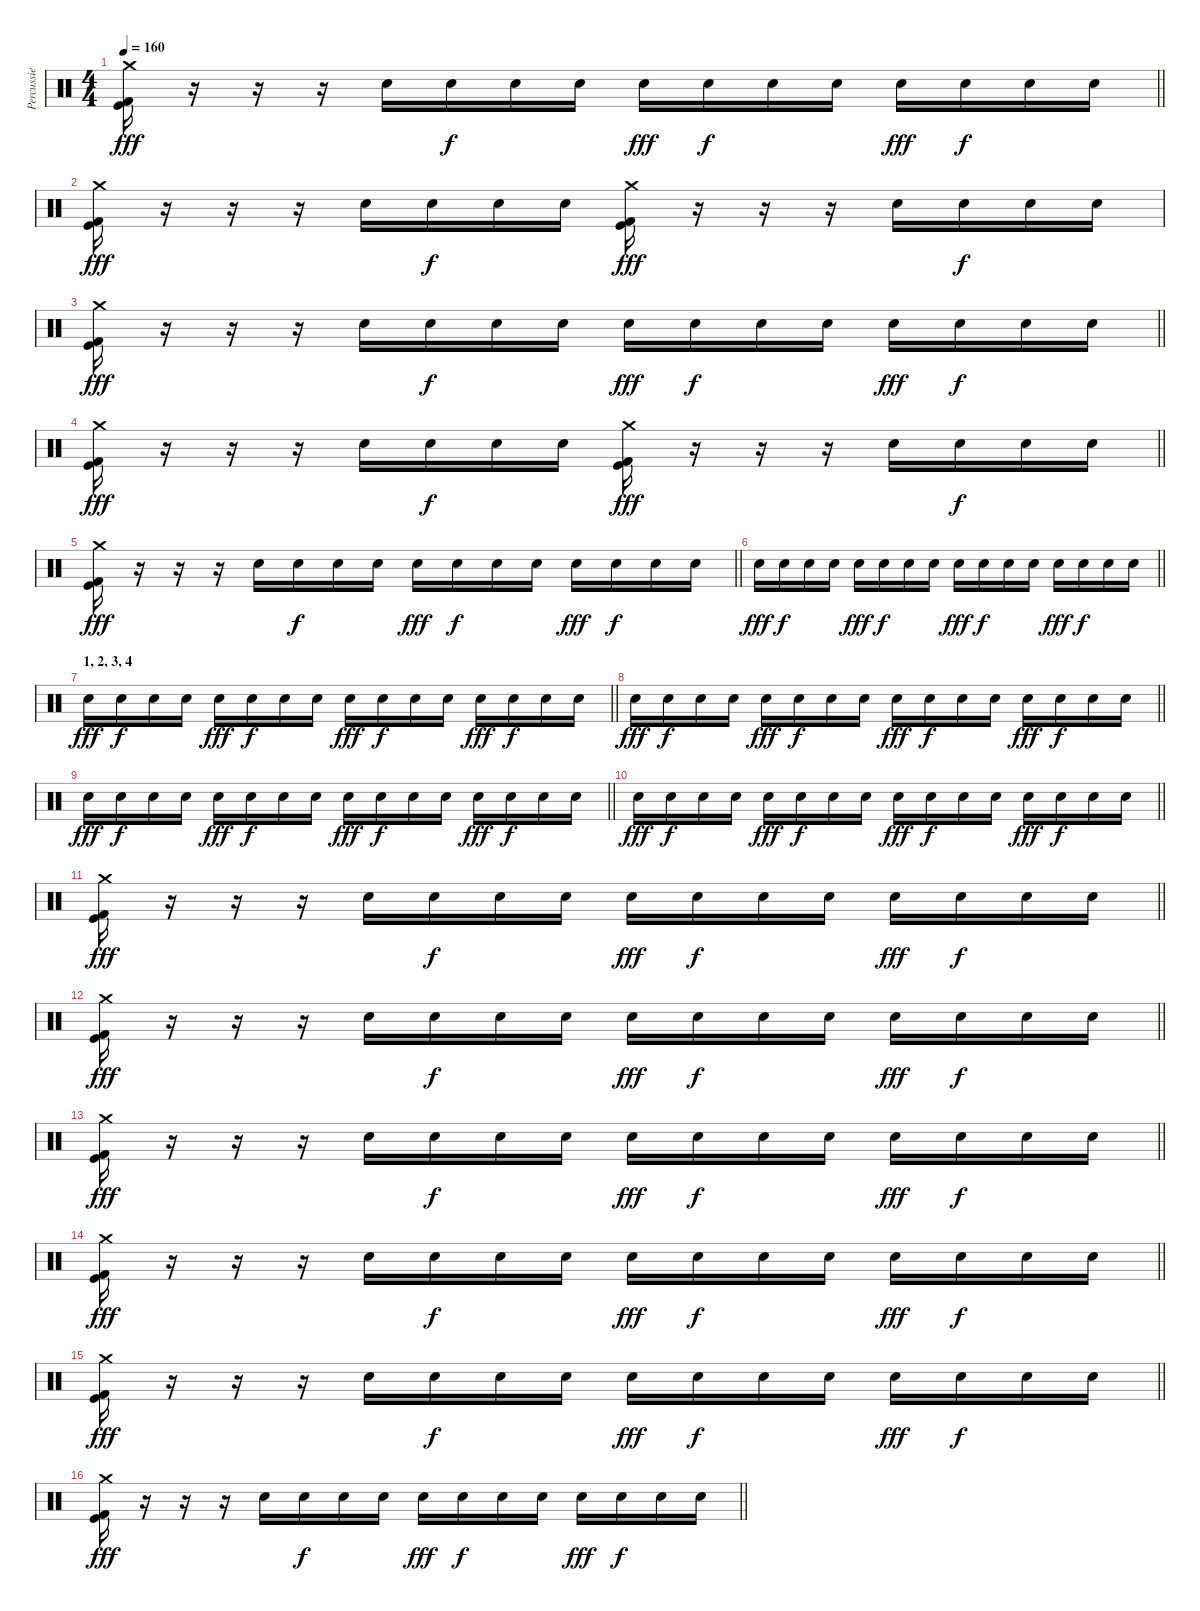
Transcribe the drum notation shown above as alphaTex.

\track ("Percussie" "Percussie") {instrument percussion}
\staff {score}
\articulation defaults
\ts (4 4)
\tempo 160
\clef neutral
\barLineRight lightlight
\ks c
("Crash medium (hit)" "Kick (hit)" "Kick (hit) 2").16{dy fff} r.16 r.16 r.16 "Snare (hit) 2".16 "Snare (hit) 2".16{dy f} "Snare (hit) 2".16 "Snare (hit) 2".16 "Snare (hit) 2".16{dy fff} "Snare (hit) 2".16{dy f} "Snare (hit) 2".16 "Snare (hit) 2".16 "Snare (hit) 2".16{dy fff} "Snare (hit) 2".16{dy f} "Snare (hit) 2".16 "Snare (hit) 2".16 |
("Crash medium (hit)" "Kick (hit)" "Kick (hit) 2").16{dy fff} r.16 r.16 r.16 "Snare (hit) 2".16 "Snare (hit) 2".16{dy f} "Snare (hit) 2".16 "Snare (hit) 2".16 ("Crash medium (hit)" "Kick (hit)" "Kick (hit) 2").16{dy fff} r.16 r.16 r.16 "Snare (hit) 2".16 "Snare (hit) 2".16{dy f} "Snare (hit) 2".16 "Snare (hit) 2".16 |
\barLineRight lightlight
("Crash medium (hit)" "Kick (hit)" "Kick (hit) 2").16{dy fff} r.16 r.16 r.16 "Snare (hit) 2".16 "Snare (hit) 2".16{dy f} "Snare (hit) 2".16 "Snare (hit) 2".16 "Snare (hit) 2".16{dy fff} "Snare (hit) 2".16{dy f} "Snare (hit) 2".16 "Snare (hit) 2".16 "Snare (hit) 2".16{dy fff} "Snare (hit) 2".16{dy f} "Snare (hit) 2".16 "Snare (hit) 2".16 |
\barLineRight lightlight
("Crash medium (hit)" "Kick (hit)" "Kick (hit) 2").16{dy fff} r.16 r.16 r.16 "Snare (hit) 2".16 "Snare (hit) 2".16{dy f} "Snare (hit) 2".16 "Snare (hit) 2".16 ("Crash medium (hit)" "Kick (hit)" "Kick (hit) 2").16{dy fff} r.16 r.16 r.16 "Snare (hit) 2".16 "Snare (hit) 2".16{dy f} "Snare (hit) 2".16 "Snare (hit) 2".16 |
\barLineRight lightlight
("Crash medium (hit)" "Kick (hit)" "Kick (hit) 2").16{dy fff} r.16 r.16 r.16 "Snare (hit) 2".16 "Snare (hit) 2".16{dy f} "Snare (hit) 2".16 "Snare (hit) 2".16 "Snare (hit) 2".16{dy fff} "Snare (hit) 2".16{dy f} "Snare (hit) 2".16 "Snare (hit) 2".16 "Snare (hit) 2".16{dy fff} "Snare (hit) 2".16{dy f} "Snare (hit) 2".16 "Snare (hit) 2".16 |
\barLineRight lightlight "Snare (hit) 2".16{dy fff} "Snare (hit) 2".16{dy f} "Snare (hit) 2".16 "Snare (hit) 2".16 "Snare (hit) 2".16{dy fff} "Snare (hit) 2".16{dy f} "Snare (hit) 2".16 "Snare (hit) 2".16 "Snare (hit) 2".16{dy fff} "Snare (hit) 2".16{dy f} "Snare (hit) 2".16 "Snare (hit) 2".16 "Snare (hit) 2".16{dy fff} "Snare (hit) 2".16{dy f} "Snare (hit) 2".16 "Snare (hit) 2".16
|
\section ("" "1, 2, 3, 4")
\barLineRight lightlight "Snare (hit) 2".16{dy fff} "Snare (hit) 2".16{dy f} "Snare (hit) 2".16 "Snare (hit) 2".16 "Snare (hit) 2".16{dy fff} "Snare (hit) 2".16{dy f} "Snare (hit) 2".16 "Snare (hit) 2".16 "Snare (hit) 2".16{dy fff} "Snare (hit) 2".16{dy f} "Snare (hit) 2".16 "Snare (hit) 2".16 "Snare (hit) 2".16{dy fff} "Snare (hit) 2".16{dy f} "Snare (hit) 2".16 "Snare (hit) 2".16
|
\barLineRight lightlight "Snare (hit) 2".16{dy fff} "Snare (hit) 2".16{dy f} "Snare (hit) 2".16 "Snare (hit) 2".16 "Snare (hit) 2".16{dy fff} "Snare (hit) 2".16{dy f} "Snare (hit) 2".16 "Snare (hit) 2".16 "Snare (hit) 2".16{dy fff} "Snare (hit) 2".16{dy f} "Snare (hit) 2".16 "Snare (hit) 2".16 "Snare (hit) 2".16{dy fff} "Snare (hit) 2".16{dy f} "Snare (hit) 2".16 "Snare (hit) 2".16
|
\barLineRight lightlight "Snare (hit) 2".16{dy fff} "Snare (hit) 2".16{dy f} "Snare (hit) 2".16 "Snare (hit) 2".16 "Snare (hit) 2".16{dy fff} "Snare (hit) 2".16{dy f} "Snare (hit) 2".16 "Snare (hit) 2".16 "Snare (hit) 2".16{dy fff} "Snare (hit) 2".16{dy f} "Snare (hit) 2".16 "Snare (hit) 2".16 "Snare (hit) 2".16{dy fff} "Snare (hit) 2".16{dy f} "Snare (hit) 2".16 "Snare (hit) 2".16
|
\barLineRight lightlight "Snare (hit) 2".16{dy fff} "Snare (hit) 2".16{dy f} "Snare (hit) 2".16 "Snare (hit) 2".16 "Snare (hit) 2".16{dy fff} "Snare (hit) 2".16{dy f} "Snare (hit) 2".16 "Snare (hit) 2".16 "Snare (hit) 2".16{dy fff} "Snare (hit) 2".16{dy f} "Snare (hit) 2".16 "Snare (hit) 2".16 "Snare (hit) 2".16{dy fff} "Snare (hit) 2".16{dy f} "Snare (hit) 2".16 "Snare (hit) 2".16
|
\section ("" "")
\barLineRight lightlight
("Crash medium (hit)" "Kick (hit)" "Kick (hit) 2").16{dy fff} r.16 r.16 r.16 "Snare (hit) 2".16 "Snare (hit) 2".16{dy f} "Snare (hit) 2".16 "Snare (hit) 2".16 "Snare (hit) 2".16{dy fff} "Snare (hit) 2".16{dy f} "Snare (hit) 2".16 "Snare (hit) 2".16 "Snare (hit) 2".16{dy fff} "Snare (hit) 2".16{dy f} "Snare (hit) 2".16 "Snare (hit) 2".16 |
\barLineRight lightlight
("Crash medium (hit)" "Kick (hit)" "Kick (hit) 2").16{dy fff} r.16 r.16 r.16 "Snare (hit) 2".16 "Snare (hit) 2".16{dy f} "Snare (hit) 2".16 "Snare (hit) 2".16 "Snare (hit) 2".16{dy fff} "Snare (hit) 2".16{dy f} "Snare (hit) 2".16 "Snare (hit) 2".16 "Snare (hit) 2".16{dy fff} "Snare (hit) 2".16{dy f} "Snare (hit) 2".16 "Snare (hit) 2".16 |
\barLineRight lightlight
("Crash medium (hit)" "Kick (hit)" "Kick (hit) 2").16{dy fff} r.16 r.16 r.16 "Snare (hit) 2".16 "Snare (hit) 2".16{dy f} "Snare (hit) 2".16 "Snare (hit) 2".16 "Snare (hit) 2".16{dy fff} "Snare (hit) 2".16{dy f} "Snare (hit) 2".16 "Snare (hit) 2".16 "Snare (hit) 2".16{dy fff} "Snare (hit) 2".16{dy f} "Snare (hit) 2".16 "Snare (hit) 2".16 |
\barLineRight lightlight
("Crash medium (hit)" "Kick (hit)" "Kick (hit) 2").16{dy fff} r.16 r.16 r.16 "Snare (hit) 2".16 "Snare (hit) 2".16{dy f} "Snare (hit) 2".16 "Snare (hit) 2".16 "Snare (hit) 2".16{dy fff} "Snare (hit) 2".16{dy f} "Snare (hit) 2".16 "Snare (hit) 2".16 "Snare (hit) 2".16{dy fff} "Snare (hit) 2".16{dy f} "Snare (hit) 2".16 "Snare (hit) 2".16 |
\barLineRight lightlight
("Crash medium (hit)" "Kick (hit)" "Kick (hit) 2").16{dy fff} r.16 r.16 r.16 "Snare (hit) 2".16 "Snare (hit) 2".16{dy f} "Snare (hit) 2".16 "Snare (hit) 2".16 "Snare (hit) 2".16{dy fff} "Snare (hit) 2".16{dy f} "Snare (hit) 2".16 "Snare (hit) 2".16 "Snare (hit) 2".16{dy fff} "Snare (hit) 2".16{dy f} "Snare (hit) 2".16 "Snare (hit) 2".16 |
\barLineRight lightlight
("Crash medium (hit)" "Kick (hit)" "Kick (hit) 2").16{dy fff} r.16 r.16 r.16 "Snare (hit) 2".16 "Snare (hit) 2".16{dy f} "Snare (hit) 2".16 "Snare (hit) 2".16 "Snare (hit) 2".16{dy fff} "Snare (hit) 2".16{dy f} "Snare (hit) 2".16 "Snare (hit) 2".16 "Snare (hit) 2".16{dy fff} "Snare (hit) 2".16{dy f} "Snare (hit) 2".16 "Snare (hit) 2".16
